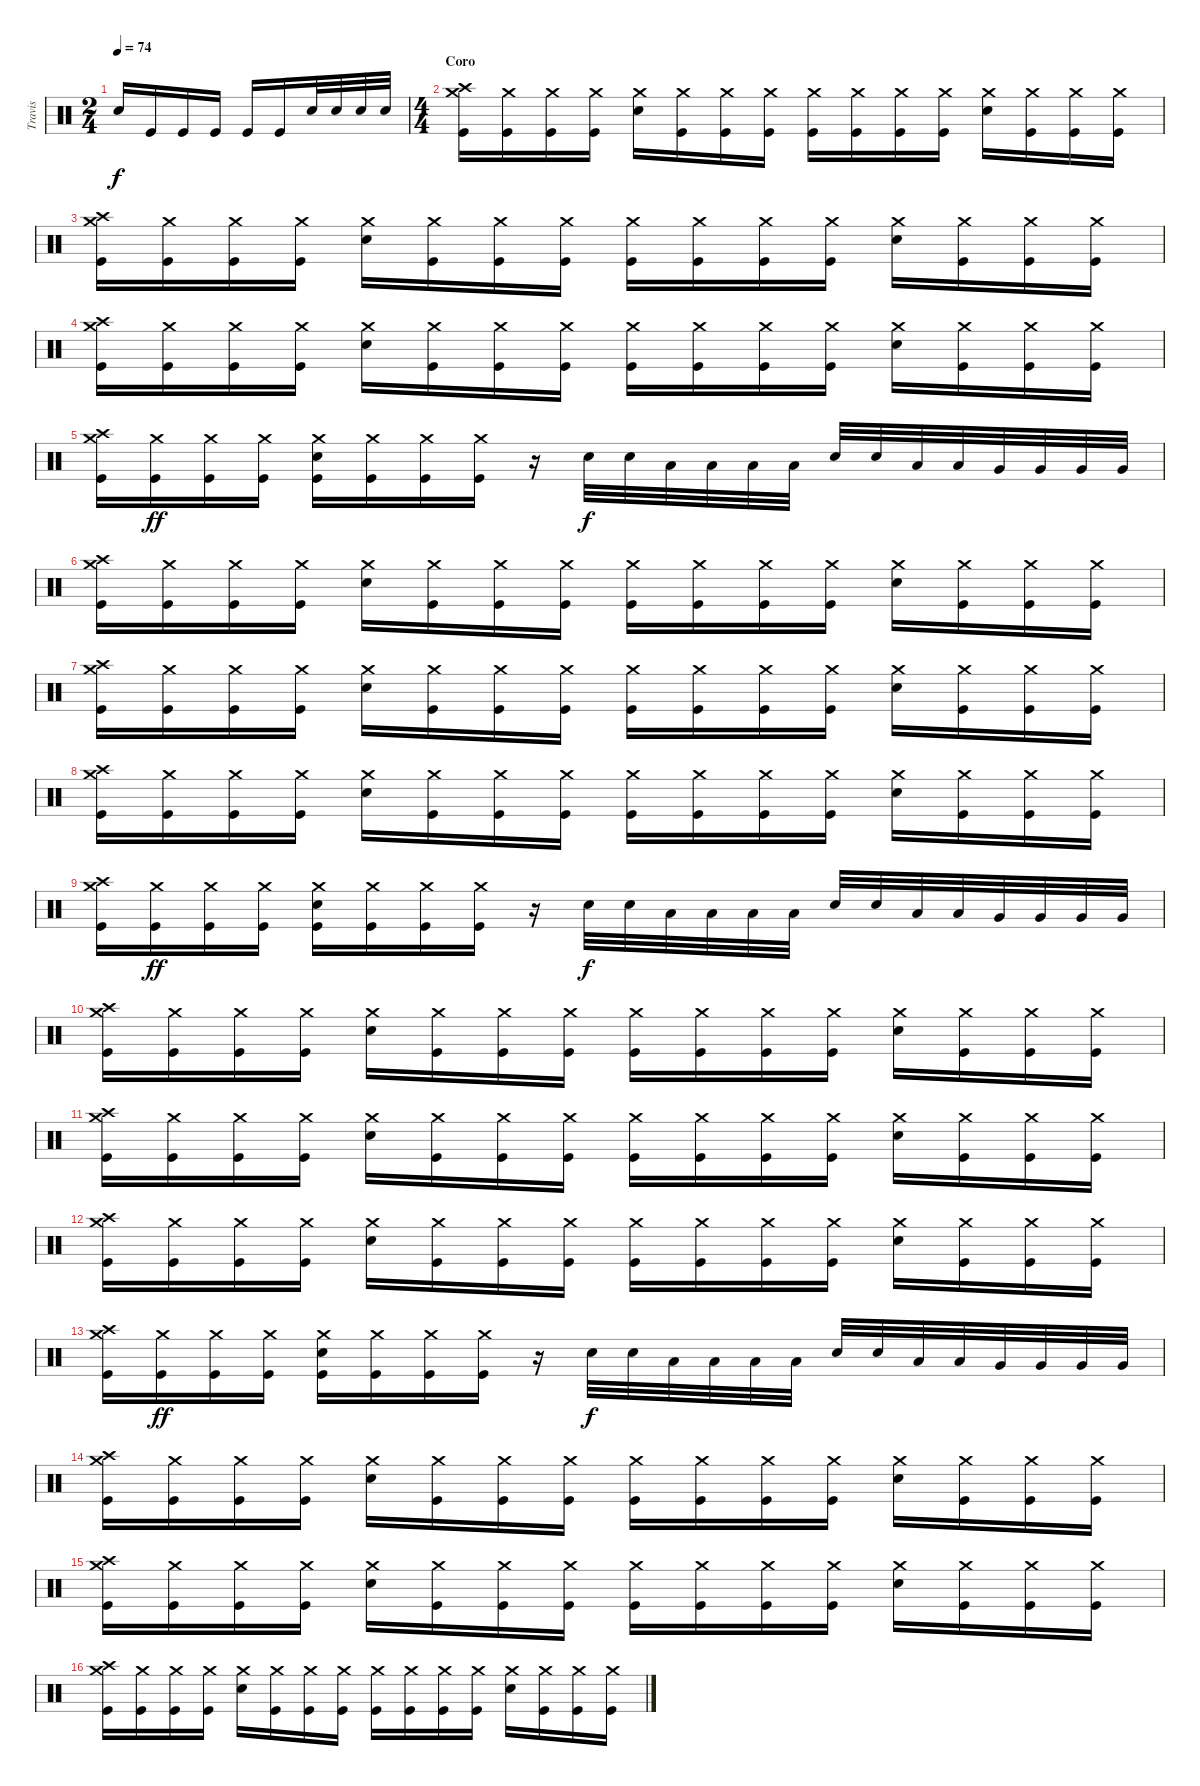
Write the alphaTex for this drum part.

\track ("Travis" "Travis") {instrument percussion}
\staff {score}
\articulation defaults
\ts (2 4)
\tempo 74
\clef neutral
\ks c "Electric Snare (hit)".16{dy f} "Kick (hit)".16 "Kick (hit)".16 "Kick (hit)".16 "Kick (hit)".16 "Kick (hit)".16 "Electric Snare (hit)".32 "Electric Snare (hit)".32 "Electric Snare (hit)".32 "Electric Snare (hit)".32
|
\ts (4 4)
\section ("" "Coro")
("Crash high (hit)" "Crash medium (hit)" "Kick (hit)").16 ("Crash medium (hit)" "Kick (hit)").16 ("Crash medium (hit)" "Kick (hit)").16 ("Crash medium (hit)" "Kick (hit)").16 ("Crash medium (hit)" "Electric Snare (hit)").16 ("Crash medium (hit)" "Kick (hit)").16 ("Crash medium (hit)" "Kick (hit)").16 ("Crash medium (hit)" "Kick (hit)").16 ("Crash medium (hit)" "Kick (hit)").16 ("Crash medium (hit)" "Kick (hit)").16 ("Crash medium (hit)" "Kick (hit)").16 ("Crash medium (hit)" "Kick (hit)").16 ("Crash medium (hit)" "Electric Snare (hit)").16 ("Crash medium (hit)" "Kick (hit)").16 ("Crash medium (hit)" "Kick (hit)").16 ("Crash medium (hit)" "Kick (hit)").16 |
("Crash high (hit)" "Crash medium (hit)" "Kick (hit)").16 ("Crash medium (hit)" "Kick (hit)").16 ("Crash medium (hit)" "Kick (hit)").16 ("Crash medium (hit)" "Kick (hit)").16 ("Crash medium (hit)" "Electric Snare (hit)").16 ("Crash medium (hit)" "Kick (hit)").16 ("Crash medium (hit)" "Kick (hit)").16 ("Crash medium (hit)" "Kick (hit)").16 ("Crash medium (hit)" "Kick (hit)").16 ("Crash medium (hit)" "Kick (hit)").16 ("Crash medium (hit)" "Kick (hit)").16 ("Crash medium (hit)" "Kick (hit)").16 ("Crash medium (hit)" "Electric Snare (hit)").16 ("Crash medium (hit)" "Kick (hit)").16 ("Crash medium (hit)" "Kick (hit)").16 ("Crash medium (hit)" "Kick (hit)").16 |
("Crash high (hit)" "Crash medium (hit)" "Kick (hit)").16 ("Crash medium (hit)" "Kick (hit)").16 ("Crash medium (hit)" "Kick (hit)").16 ("Crash medium (hit)" "Kick (hit)").16 ("Crash medium (hit)" "Electric Snare (hit)").16 ("Crash medium (hit)" "Kick (hit)").16 ("Crash medium (hit)" "Kick (hit)").16 ("Crash medium (hit)" "Kick (hit)").16 ("Crash medium (hit)" "Kick (hit)").16 ("Crash medium (hit)" "Kick (hit)").16 ("Crash medium (hit)" "Kick (hit)").16 ("Crash medium (hit)" "Kick (hit)").16 ("Crash medium (hit)" "Electric Snare (hit)").16 ("Crash medium (hit)" "Kick (hit)").16 ("Crash medium (hit)" "Kick (hit)").16 ("Crash medium (hit)" "Kick (hit)").16 |
("Crash high (hit)" "Crash medium (hit)" "Kick (hit)").16 ("Crash medium (hit)" "Kick (hit)").16{dy ff} ("Crash medium (hit)" "Kick (hit)").16 ("Crash medium (hit)" "Kick (hit)").16 ("Crash medium (hit)" "Electric Snare (hit)" "Kick (hit)").16 ("Crash medium (hit)" "Kick (hit)").16 ("Crash medium (hit)" "Kick (hit)").16 ("Crash medium (hit)" "Kick (hit)").16 r.16 "Electric Snare (hit)".32{dy f} "Electric Snare (hit)".32 "Low Tom (hit)".32 "Low Tom (hit)".32 "Low Tom (hit)".32 "Low Tom (hit)".32 "Electric Snare (hit)".32 "Electric Snare (hit)".32 "Low Tom (hit)".32 "Low Tom (hit)".32 "Very Low Tom (hit)".32 "Very Low Tom (hit)".32 "Very Low Tom (hit)".32 "Very Low Tom (hit)".32 |
("Crash high (hit)" "Crash medium (hit)" "Kick (hit)").16 ("Crash medium (hit)" "Kick (hit)").16 ("Crash medium (hit)" "Kick (hit)").16 ("Crash medium (hit)" "Kick (hit)").16 ("Crash medium (hit)" "Electric Snare (hit)").16 ("Crash medium (hit)" "Kick (hit)").16 ("Crash medium (hit)" "Kick (hit)").16 ("Crash medium (hit)" "Kick (hit)").16 ("Crash medium (hit)" "Kick (hit)").16 ("Crash medium (hit)" "Kick (hit)").16 ("Crash medium (hit)" "Kick (hit)").16 ("Crash medium (hit)" "Kick (hit)").16 ("Crash medium (hit)" "Electric Snare (hit)").16 ("Crash medium (hit)" "Kick (hit)").16 ("Crash medium (hit)" "Kick (hit)").16 ("Crash medium (hit)" "Kick (hit)").16 |
("Crash high (hit)" "Crash medium (hit)" "Kick (hit)").16 ("Crash medium (hit)" "Kick (hit)").16 ("Crash medium (hit)" "Kick (hit)").16 ("Crash medium (hit)" "Kick (hit)").16 ("Crash medium (hit)" "Electric Snare (hit)").16 ("Crash medium (hit)" "Kick (hit)").16 ("Crash medium (hit)" "Kick (hit)").16 ("Crash medium (hit)" "Kick (hit)").16 ("Crash medium (hit)" "Kick (hit)").16 ("Crash medium (hit)" "Kick (hit)").16 ("Crash medium (hit)" "Kick (hit)").16 ("Crash medium (hit)" "Kick (hit)").16 ("Crash medium (hit)" "Electric Snare (hit)").16 ("Crash medium (hit)" "Kick (hit)").16 ("Crash medium (hit)" "Kick (hit)").16 ("Crash medium (hit)" "Kick (hit)").16 |
("Crash high (hit)" "Crash medium (hit)" "Kick (hit)").16 ("Crash medium (hit)" "Kick (hit)").16 ("Crash medium (hit)" "Kick (hit)").16 ("Crash medium (hit)" "Kick (hit)").16 ("Crash medium (hit)" "Electric Snare (hit)").16 ("Crash medium (hit)" "Kick (hit)").16 ("Crash medium (hit)" "Kick (hit)").16 ("Crash medium (hit)" "Kick (hit)").16 ("Crash medium (hit)" "Kick (hit)").16 ("Crash medium (hit)" "Kick (hit)").16 ("Crash medium (hit)" "Kick (hit)").16 ("Crash medium (hit)" "Kick (hit)").16 ("Crash medium (hit)" "Electric Snare (hit)").16 ("Crash medium (hit)" "Kick (hit)").16 ("Crash medium (hit)" "Kick (hit)").16 ("Crash medium (hit)" "Kick (hit)").16 |
("Crash high (hit)" "Crash medium (hit)" "Kick (hit)").16 ("Crash medium (hit)" "Kick (hit)").16{dy ff} ("Crash medium (hit)" "Kick (hit)").16 ("Crash medium (hit)" "Kick (hit)").16 ("Crash medium (hit)" "Electric Snare (hit)" "Kick (hit)").16 ("Crash medium (hit)" "Kick (hit)").16 ("Crash medium (hit)" "Kick (hit)").16 ("Crash medium (hit)" "Kick (hit)").16 r.16 "Electric Snare (hit)".32{dy f} "Electric Snare (hit)".32 "Low Tom (hit)".32 "Low Tom (hit)".32 "Low Tom (hit)".32 "Low Tom (hit)".32 "Electric Snare (hit)".32 "Electric Snare (hit)".32 "Low Tom (hit)".32 "Low Tom (hit)".32 "Very Low Tom (hit)".32 "Very Low Tom (hit)".32 "Very Low Tom (hit)".32 "Very Low Tom (hit)".32 |
("Crash high (hit)" "Crash medium (hit)" "Kick (hit)").16 ("Crash medium (hit)" "Kick (hit)").16 ("Crash medium (hit)" "Kick (hit)").16 ("Crash medium (hit)" "Kick (hit)").16 ("Crash medium (hit)" "Electric Snare (hit)").16 ("Crash medium (hit)" "Kick (hit)").16 ("Crash medium (hit)" "Kick (hit)").16 ("Crash medium (hit)" "Kick (hit)").16 ("Crash medium (hit)" "Kick (hit)").16 ("Crash medium (hit)" "Kick (hit)").16 ("Crash medium (hit)" "Kick (hit)").16 ("Crash medium (hit)" "Kick (hit)").16 ("Crash medium (hit)" "Electric Snare (hit)").16 ("Crash medium (hit)" "Kick (hit)").16 ("Crash medium (hit)" "Kick (hit)").16 ("Crash medium (hit)" "Kick (hit)").16 |
("Crash high (hit)" "Crash medium (hit)" "Kick (hit)").16 ("Crash medium (hit)" "Kick (hit)").16 ("Crash medium (hit)" "Kick (hit)").16 ("Crash medium (hit)" "Kick (hit)").16 ("Crash medium (hit)" "Electric Snare (hit)").16 ("Crash medium (hit)" "Kick (hit)").16 ("Crash medium (hit)" "Kick (hit)").16 ("Crash medium (hit)" "Kick (hit)").16 ("Crash medium (hit)" "Kick (hit)").16 ("Crash medium (hit)" "Kick (hit)").16 ("Crash medium (hit)" "Kick (hit)").16 ("Crash medium (hit)" "Kick (hit)").16 ("Crash medium (hit)" "Electric Snare (hit)").16 ("Crash medium (hit)" "Kick (hit)").16 ("Crash medium (hit)" "Kick (hit)").16 ("Crash medium (hit)" "Kick (hit)").16 |
("Crash high (hit)" "Crash medium (hit)" "Kick (hit)").16 ("Crash medium (hit)" "Kick (hit)").16 ("Crash medium (hit)" "Kick (hit)").16 ("Crash medium (hit)" "Kick (hit)").16 ("Crash medium (hit)" "Electric Snare (hit)").16 ("Crash medium (hit)" "Kick (hit)").16 ("Crash medium (hit)" "Kick (hit)").16 ("Crash medium (hit)" "Kick (hit)").16 ("Crash medium (hit)" "Kick (hit)").16 ("Crash medium (hit)" "Kick (hit)").16 ("Crash medium (hit)" "Kick (hit)").16 ("Crash medium (hit)" "Kick (hit)").16 ("Crash medium (hit)" "Electric Snare (hit)").16 ("Crash medium (hit)" "Kick (hit)").16 ("Crash medium (hit)" "Kick (hit)").16 ("Crash medium (hit)" "Kick (hit)").16 |
("Crash high (hit)" "Crash medium (hit)" "Kick (hit)").16 ("Crash medium (hit)" "Kick (hit)").16{dy ff} ("Crash medium (hit)" "Kick (hit)").16 ("Crash medium (hit)" "Kick (hit)").16 ("Crash medium (hit)" "Electric Snare (hit)" "Kick (hit)").16 ("Crash medium (hit)" "Kick (hit)").16 ("Crash medium (hit)" "Kick (hit)").16 ("Crash medium (hit)" "Kick (hit)").16 r.16 "Electric Snare (hit)".32{dy f} "Electric Snare (hit)".32 "Low Tom (hit)".32 "Low Tom (hit)".32 "Low Tom (hit)".32 "Low Tom (hit)".32 "Electric Snare (hit)".32 "Electric Snare (hit)".32 "Low Tom (hit)".32 "Low Tom (hit)".32 "Very Low Tom (hit)".32 "Very Low Tom (hit)".32 "Very Low Tom (hit)".32 "Very Low Tom (hit)".32 |
("Crash high (hit)" "Crash medium (hit)" "Kick (hit)").16 ("Crash medium (hit)" "Kick (hit)").16 ("Crash medium (hit)" "Kick (hit)").16 ("Crash medium (hit)" "Kick (hit)").16 ("Crash medium (hit)" "Electric Snare (hit)").16 ("Crash medium (hit)" "Kick (hit)").16 ("Crash medium (hit)" "Kick (hit)").16 ("Crash medium (hit)" "Kick (hit)").16 ("Crash medium (hit)" "Kick (hit)").16 ("Crash medium (hit)" "Kick (hit)").16 ("Crash medium (hit)" "Kick (hit)").16 ("Crash medium (hit)" "Kick (hit)").16 ("Crash medium (hit)" "Electric Snare (hit)").16 ("Crash medium (hit)" "Kick (hit)").16 ("Crash medium (hit)" "Kick (hit)").16 ("Crash medium (hit)" "Kick (hit)").16 |
("Crash high (hit)" "Crash medium (hit)" "Kick (hit)").16 ("Crash medium (hit)" "Kick (hit)").16 ("Crash medium (hit)" "Kick (hit)").16 ("Crash medium (hit)" "Kick (hit)").16 ("Crash medium (hit)" "Electric Snare (hit)").16 ("Crash medium (hit)" "Kick (hit)").16 ("Crash medium (hit)" "Kick (hit)").16 ("Crash medium (hit)" "Kick (hit)").16 ("Crash medium (hit)" "Kick (hit)").16 ("Crash medium (hit)" "Kick (hit)").16 ("Crash medium (hit)" "Kick (hit)").16 ("Crash medium (hit)" "Kick (hit)").16 ("Crash medium (hit)" "Electric Snare (hit)").16 ("Crash medium (hit)" "Kick (hit)").16 ("Crash medium (hit)" "Kick (hit)").16 ("Crash medium (hit)" "Kick (hit)").16 |
("Crash high (hit)" "Crash medium (hit)" "Kick (hit)").16 ("Crash medium (hit)" "Kick (hit)").16 ("Crash medium (hit)" "Kick (hit)").16 ("Crash medium (hit)" "Kick (hit)").16 ("Crash medium (hit)" "Electric Snare (hit)").16 ("Crash medium (hit)" "Kick (hit)").16 ("Crash medium (hit)" "Kick (hit)").16 ("Crash medium (hit)" "Kick (hit)").16 ("Crash medium (hit)" "Kick (hit)").16 ("Crash medium (hit)" "Kick (hit)").16 ("Crash medium (hit)" "Kick (hit)").16 ("Crash medium (hit)" "Kick (hit)").16 ("Crash medium (hit)" "Electric Snare (hit)").16 ("Crash medium (hit)" "Kick (hit)").16 ("Crash medium (hit)" "Kick (hit)").16 ("Crash medium (hit)" "Kick (hit)").16
